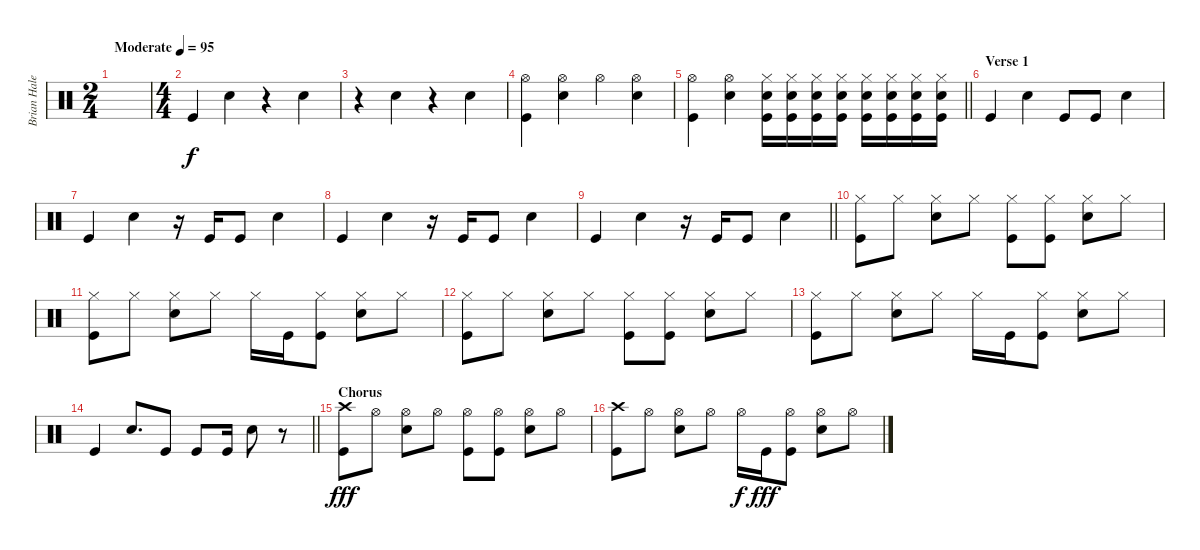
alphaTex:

\track ("Brian Haley" "Brian Hale") {instrument percussion}
\staff {score}
\articulation defaults
\ts (2 4)
\tempo (95 "Moderate")
\clef neutral
\ks c
|
\ts (4 4)
"Kick (hit)".4 "Hand Clap (hit)".4 r.4 "Hand Clap (hit)".4 |
r.4 "Hand Clap (hit)".4 r.4 "Hand Clap (hit)".4 |
("Hi-Hat (open)" "Kick (hit)").4 ("Hi-Hat (open)" "Hand Clap (hit)").4 "Hi-Hat (open)".4 ("Hi-Hat (open)" "Hand Clap (hit)").4 |
\barLineRight lightlight
("Hi-Hat (open)" "Kick (hit)").4 ("Hi-Hat (open)" "Hand Clap (hit)").4 ("Snare (hit) 2" "Kick (hit)" "Hi-Hat (closed)").16 ("Snare (hit) 2" "Kick (hit)" "Hi-Hat (closed)").16 ("Snare (hit) 2" "Kick (hit)" "Hi-Hat (closed)").16 ("Snare (hit) 2" "Kick (hit)" "Hi-Hat (closed)").16 ("Snare (hit) 2" "Kick (hit)" "Hi-Hat (closed)").16 ("Snare (hit) 2" "Kick (hit)" "Hi-Hat (closed)").16 ("Snare (hit) 2" "Kick (hit)" "Hi-Hat (closed)").16 ("Snare (hit) 2" "Kick (hit)" "Hi-Hat (closed)").16 |
\section ("" "Verse 1")
"Kick (hit)".4 "Hand Clap (hit)".4 "Kick (hit)".8 "Kick (hit)".8 "Hand Clap (hit)".4 |
"Kick (hit)".4 "Hand Clap (hit)".4 r.16 "Kick (hit)".16 "Kick (hit)".8 "Hand Clap (hit)".4 |
"Kick (hit)".4 "Hand Clap (hit)".4 r.16 "Kick (hit)".16 "Kick (hit)".8 "Hand Clap (hit)".4 |
\barLineRight lightlight "Kick (hit)".4 "Hand Clap (hit)".4
r.16 "Kick (hit)".16 "Kick (hit)".8 "Hand Clap (hit)".4 |
("Hi-Hat (closed)" "Kick (hit)").8 "Hi-Hat (closed)".8 ("Hi-Hat (closed)" "Hand Clap (hit)").8 "Hi-Hat (closed)".8 ("Hi-Hat (closed)" "Kick (hit)").8 ("Hi-Hat (closed)" "Kick (hit)").8 ("Hi-Hat (closed)" "Hand Clap (hit)").8 "Hi-Hat (closed)".8 |
("Hi-Hat (closed)" "Kick (hit)").8 "Hi-Hat (closed)".8 ("Hi-Hat (closed)" "Hand Clap (hit)").8 "Hi-Hat (closed)".8 "Hi-Hat (closed)".16 "Kick (hit)".16 ("Hi-Hat (closed)" "Kick (hit)").8 ("Hi-Hat (closed)" "Hand Clap (hit)").8 "Hi-Hat (closed)".8 |
("Hi-Hat (closed)" "Kick (hit)").8 "Hi-Hat (closed)".8 ("Hi-Hat (closed)" "Hand Clap (hit)").8 "Hi-Hat (closed)".8 ("Hi-Hat (closed)" "Kick (hit)").8 ("Hi-Hat (closed)" "Kick (hit)").8 ("Hi-Hat (closed)" "Hand Clap (hit)").8 "Hi-Hat (closed)".8 |
("Hi-Hat (closed)" "Kick (hit)").8 "Hi-Hat (closed)".8 ("Hi-Hat (closed)" "Hand Clap (hit)").8 "Hi-Hat (closed)".8 "Hi-Hat (closed)".16 "Kick (hit)".16 ("Hi-Hat (closed)" "Kick (hit)").8 ("Hi-Hat (closed)" "Hand Clap (hit)").8 "Hi-Hat (closed)".8 |
\barLineRight lightlight "Kick (hit)".4 "Hand Clap (hit)".8{d} "Kick (hit)".8{dy f} "Kick (hit)".8 "Kick (hit)".16 "Hand Clap (hit)".8
r.8 |
\section ("" "Chorus")
("Crash high (hit)" "Kick (hit)").8{dy fff} "Hi-Hat (open)".8 ("Hi-Hat (open)" "Hand Clap (hit)").8 "Hi-Hat (open)".8 ("Hi-Hat (open)" "Kick (hit)").8 ("Hi-Hat (open)" "Kick (hit)").8 ("Hi-Hat (open)" "Hand Clap (hit)").8 "Hi-Hat (open)".8 |
("Crash high (hit)" "Kick (hit)").8 "Hi-Hat (open)".8 ("Hi-Hat (open)" "Hand Clap (hit)").8 "Hi-Hat (open)".8 "Hi-Hat (open)".16{dy f} "Kick (hit)".16{dy fff} ("Hi-Hat (open)" "Kick (hit)").8 ("Hi-Hat (open)" "Hand Clap (hit)").8 "Hi-Hat (open)".8
